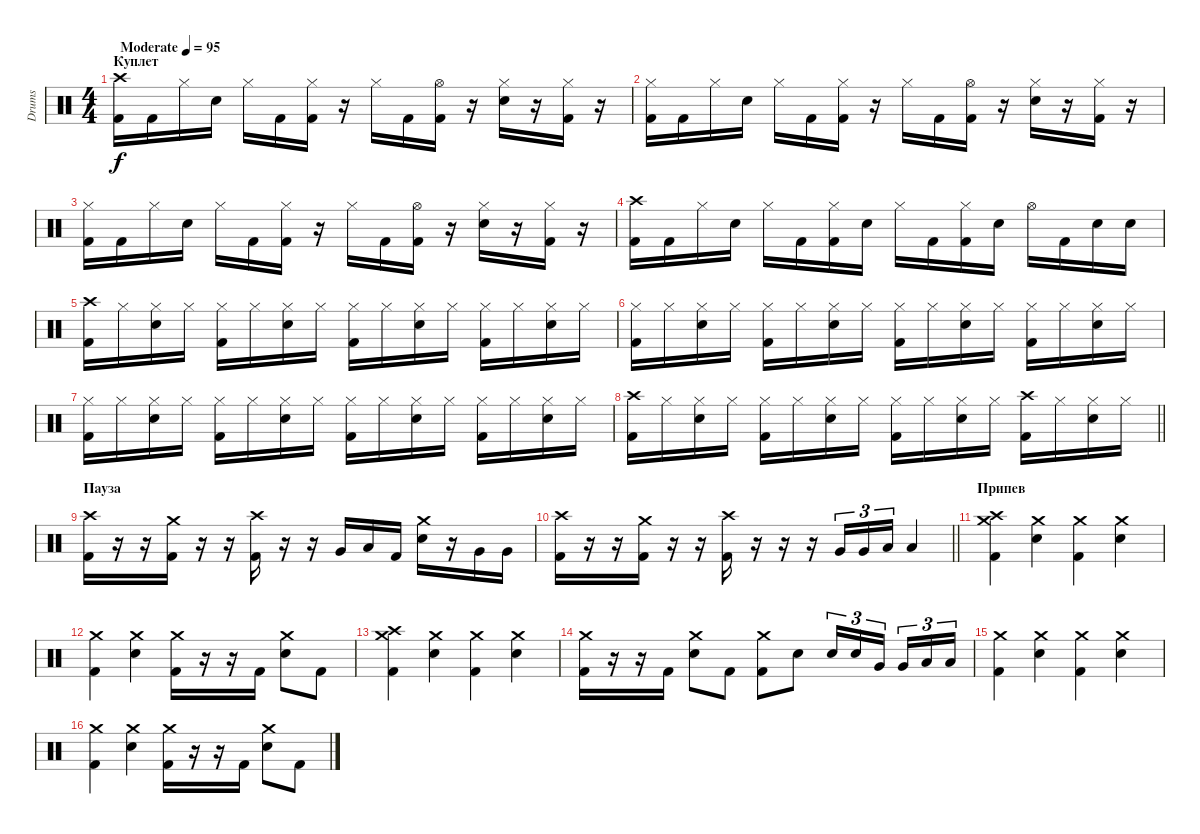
\track ("Drums" "Drums") {instrument percussion}
\staff {score}
\articulation defaults
\ts (4 4)
\section ("" "Куплет")
\tempo (95 "Moderate")
\clef neutral
\ks c
("Crash high (hit)" "Kick (hit) 2").16{dy f} "Kick (hit) 2".16 "Hi-Hat (closed)".16 "Electric Snare (hit)".16 "Hi-Hat (closed)".16 "Kick (hit) 2".16 ("Hi-Hat (closed)" "Kick (hit) 2").16 r.16 "Hi-Hat (closed)".16 "Kick (hit) 2".16 ("Hi-Hat (open)" "Kick (hit) 2").16 r.16 ("Hi-Hat (closed)" "Electric Snare (hit)").16 r.16 ("Hi-Hat (closed)" "Kick (hit) 2").16 r.16 |
("Hi-Hat (closed)" "Kick (hit) 2").16 "Kick (hit) 2".16 "Hi-Hat (closed)".16 "Electric Snare (hit)".16 "Hi-Hat (closed)".16 "Kick (hit) 2".16 ("Hi-Hat (closed)" "Kick (hit) 2").16 r.16 "Hi-Hat (closed)".16 "Kick (hit) 2".16 ("Hi-Hat (open)" "Kick (hit) 2").16 r.16 ("Hi-Hat (closed)" "Electric Snare (hit)").16 r.16 ("Hi-Hat (closed)" "Kick (hit) 2").16 r.16 |
("Hi-Hat (closed)" "Kick (hit) 2").16 "Kick (hit) 2".16 "Hi-Hat (closed)".16 "Electric Snare (hit)".16 "Hi-Hat (closed)".16 "Kick (hit) 2".16 ("Hi-Hat (closed)" "Kick (hit) 2").16 r.16 "Hi-Hat (closed)".16 "Kick (hit) 2".16 ("Hi-Hat (open)" "Kick (hit) 2").16 r.16 ("Hi-Hat (closed)" "Electric Snare (hit)").16 r.16 ("Hi-Hat (closed)" "Kick (hit) 2").16 r.16 |
("Crash high (hit)" "Kick (hit) 2").16 "Kick (hit) 2".16 "Hi-Hat (closed)".16 "Electric Snare (hit)".16 "Hi-Hat (closed)".16 "Kick (hit) 2".16 ("Hi-Hat (closed)" "Kick (hit) 2").16 "Electric Snare (hit)".16 "Hi-Hat (closed)".16 "Kick (hit) 2".16 ("Hi-Hat (closed)" "Kick (hit) 2").16 "Electric Snare (hit)".16 "Hi-Hat (open)".16 "Kick (hit) 2".16 "Electric Snare (hit)".16 "Electric Snare (hit)".16 |
("Crash high (hit)" "Kick (hit) 2").16 "Hi-Hat (closed)".16 ("Hi-Hat (closed)" "Electric Snare (hit)").16 "Hi-Hat (closed)".16 ("Hi-Hat (closed)" "Kick (hit) 2").16 "Hi-Hat (closed)".16 ("Hi-Hat (closed)" "Electric Snare (hit)").16 "Hi-Hat (closed)".16 ("Hi-Hat (closed)" "Kick (hit) 2").16 "Hi-Hat (closed)".16 ("Hi-Hat (closed)" "Electric Snare (hit)").16 "Hi-Hat (closed)".16 ("Hi-Hat (closed)" "Kick (hit) 2").16 "Hi-Hat (closed)".16 ("Hi-Hat (closed)" "Electric Snare (hit)").16 "Hi-Hat (closed)".16 |
("Hi-Hat (closed)" "Kick (hit) 2").16 "Hi-Hat (closed)".16 ("Hi-Hat (closed)" "Electric Snare (hit)").16 "Hi-Hat (closed)".16 ("Hi-Hat (closed)" "Kick (hit) 2").16 "Hi-Hat (closed)".16 ("Hi-Hat (closed)" "Electric Snare (hit)").16 "Hi-Hat (closed)".16 ("Hi-Hat (closed)" "Kick (hit) 2").16 "Hi-Hat (closed)".16 ("Hi-Hat (closed)" "Electric Snare (hit)").16 "Hi-Hat (closed)".16 ("Hi-Hat (closed)" "Kick (hit) 2").16 "Hi-Hat (closed)".16 ("Hi-Hat (closed)" "Electric Snare (hit)").16 "Hi-Hat (closed)".16 |
("Hi-Hat (closed)" "Kick (hit) 2").16 "Hi-Hat (closed)".16 ("Hi-Hat (closed)" "Electric Snare (hit)").16 "Hi-Hat (closed)".16 ("Hi-Hat (closed)" "Kick (hit) 2").16 "Hi-Hat (closed)".16 ("Hi-Hat (closed)" "Electric Snare (hit)").16 "Hi-Hat (closed)".16 ("Hi-Hat (closed)" "Kick (hit) 2").16 "Hi-Hat (closed)".16 ("Hi-Hat (closed)" "Electric Snare (hit)").16 "Hi-Hat (closed)".16 ("Hi-Hat (closed)" "Kick (hit) 2").16 "Hi-Hat (closed)".16 ("Hi-Hat (closed)" "Electric Snare (hit)").16 "Hi-Hat (closed)".16 |
\barLineRight lightlight
("Crash high (hit)" "Kick (hit) 2").16 "Hi-Hat (closed)".16 ("Hi-Hat (closed)" "Electric Snare (hit)").16 "Hi-Hat (closed)".16 ("Hi-Hat (closed)" "Kick (hit) 2").16 "Hi-Hat (closed)".16 ("Hi-Hat (closed)" "Electric Snare (hit)").16 "Hi-Hat (closed)".16 ("Hi-Hat (closed)" "Kick (hit) 2").16 "Hi-Hat (closed)".16 ("Hi-Hat (closed)" "Electric Snare (hit)").16 "Hi-Hat (closed)".16 ("Crash high (hit)" "Kick (hit) 2").16 "Hi-Hat (closed)".16 ("Hi-Hat (closed)" "Electric Snare (hit)").16 "Hi-Hat (closed)".16 |
\section ("" "Пауза")
("Crash high (hit)" "Kick (hit) 2").16 r.16 r.16 ("Crash medium (hit)" "Kick (hit) 2").16 r.16 r.16 ("Crash high (hit)" "Kick (hit) 2").16 r.16 r.16 "Very Low Tom (hit)".16 "Low Floor Tom (hit)".16 "Kick (hit) 2".16 ("Crash medium (hit)" "Electric Snare (hit)").16 r.16 "Very Low Tom (hit)".16 "Very Low Tom (hit)".16 |
\barLineRight lightlight
("Crash high (hit)" "Kick (hit) 2").16 r.16 r.16 ("Crash medium (hit)" "Kick (hit) 2").16 r.16 r.16 ("Crash high (hit)" "Kick (hit) 2").16 r.16 r.16 r.16 "Very Low Tom (hit)".16{tu (3 2)} "Very Low Tom (hit)".16{tu (3 2)} "Low Floor Tom (hit)".16{tu (3 2)} "Low Floor Tom (hit)".4 |
\section ("" "Припев")
("Crash medium (hit)" "Crash high (hit)" "Kick (hit) 2").4 ("Crash medium (hit)" "Electric Snare (hit)").4 ("Crash medium (hit)" "Kick (hit) 2").4 ("Crash medium (hit)" "Electric Snare (hit)").4 |
("Crash medium (hit)" "Kick (hit) 2").4 ("Crash medium (hit)" "Electric Snare (hit)").4 ("Crash medium (hit)" "Kick (hit) 2").16 r.16 r.16 "Kick (hit) 2".16 ("Crash medium (hit)" "Electric Snare (hit)").8 "Kick (hit) 2".8 |
("Crash medium (hit)" "Crash high (hit)" "Kick (hit) 2").4 ("Crash medium (hit)" "Electric Snare (hit)").4 ("Crash medium (hit)" "Kick (hit) 2").4 ("Crash medium (hit)" "Electric Snare (hit)").4 |
("Crash medium (hit)" "Kick (hit) 2").16 r.16 r.16 "Kick (hit) 2".16 ("Crash medium (hit)" "Electric Snare (hit)").8 "Kick (hit) 2".8 ("Crash medium (hit)" "Kick (hit) 2").8 "Electric Snare (hit)".8 "Electric Snare (hit)".16{tu (3 2)} "Electric Snare (hit)".16{tu (3 2)} "Very Low Tom (hit)".16{tu (3 2) beam splitsecondary} "Very Low Tom (hit)".16{tu (3 2)} "Low Floor Tom (hit)".16{tu (3 2)} "Low Floor Tom (hit)".16{tu (3 2)} |
("Crash medium (hit)" "Kick (hit) 2").4 ("Crash medium (hit)" "Electric Snare (hit)").4 ("Crash medium (hit)" "Kick (hit) 2").4 ("Crash medium (hit)" "Electric Snare (hit)").4 |
("Crash medium (hit)" "Kick (hit) 2").4 ("Crash medium (hit)" "Electric Snare (hit)").4 ("Crash medium (hit)" "Kick (hit) 2").16 r.16 r.16 "Kick (hit) 2".16 ("Crash medium (hit)" "Electric Snare (hit)").8 "Kick (hit) 2".8
